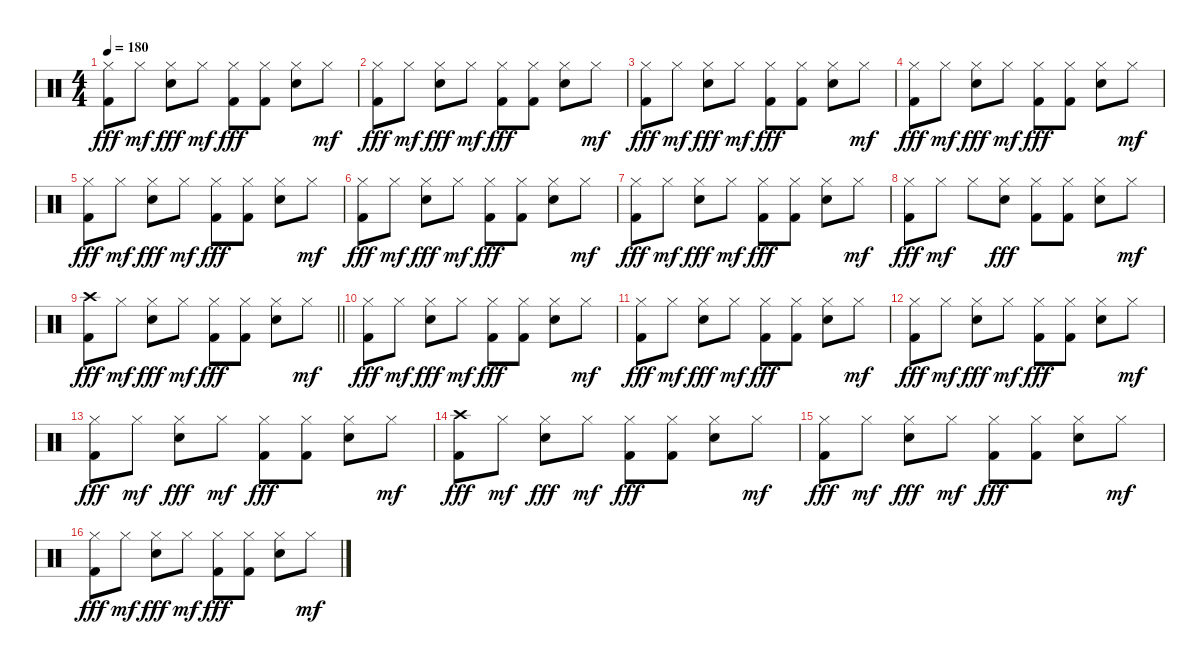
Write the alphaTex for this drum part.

\track "" {instrument percussion}
\staff {score}
\articulation defaults
\ts (4 4)
\tempo 180
\clef neutral
\ks c
("Hi-Hat (closed)" "Kick (hit) 2").8{dy fff} "Hi-Hat (closed)".8{dy mf} ("Hi-Hat (closed)" "Snare (hit) 2").8{dy fff} "Hi-Hat (closed)".8{dy mf} ("Hi-Hat (closed)" "Kick (hit) 2").8{dy fff} ("Hi-Hat (closed)" "Kick (hit) 2").8 ("Hi-Hat (closed)" "Snare (hit) 2").8 "Hi-Hat (closed)".8{dy mf} |
("Hi-Hat (closed)" "Kick (hit) 2").8{dy fff} "Hi-Hat (closed)".8{dy mf} ("Hi-Hat (closed)" "Snare (hit) 2").8{dy fff} "Hi-Hat (closed)".8{dy mf} ("Hi-Hat (closed)" "Kick (hit) 2").8{dy fff} ("Hi-Hat (closed)" "Kick (hit) 2").8 ("Hi-Hat (closed)" "Snare (hit) 2").8 "Hi-Hat (closed)".8{dy mf} |
("Hi-Hat (closed)" "Kick (hit) 2").8{dy fff} "Hi-Hat (closed)".8{dy mf} ("Hi-Hat (closed)" "Snare (hit) 2").8{dy fff} "Hi-Hat (closed)".8{dy mf} ("Hi-Hat (closed)" "Kick (hit) 2").8{dy fff} ("Hi-Hat (closed)" "Kick (hit) 2").8 ("Hi-Hat (closed)" "Snare (hit) 2").8 "Hi-Hat (closed)".8{dy mf} |
("Hi-Hat (closed)" "Kick (hit) 2").8{dy fff} "Hi-Hat (closed)".8{dy mf} ("Hi-Hat (closed)" "Snare (hit) 2").8{dy fff} "Hi-Hat (closed)".8{dy mf} ("Hi-Hat (closed)" "Kick (hit) 2").8{dy fff} ("Hi-Hat (closed)" "Kick (hit) 2").8 ("Hi-Hat (closed)" "Snare (hit) 2").8 "Hi-Hat (closed)".8{dy mf} |
("Hi-Hat (closed)" "Kick (hit) 2").8{dy fff} "Hi-Hat (closed)".8{dy mf} ("Hi-Hat (closed)" "Snare (hit) 2").8{dy fff} "Hi-Hat (closed)".8{dy mf} ("Hi-Hat (closed)" "Kick (hit) 2").8{dy fff} ("Hi-Hat (closed)" "Kick (hit) 2").8 ("Hi-Hat (closed)" "Snare (hit) 2").8 "Hi-Hat (closed)".8{dy mf} |
("Hi-Hat (closed)" "Kick (hit) 2").8{dy fff} "Hi-Hat (closed)".8{dy mf} ("Hi-Hat (closed)" "Snare (hit) 2").8{dy fff} "Hi-Hat (closed)".8{dy mf} ("Hi-Hat (closed)" "Kick (hit) 2").8{dy fff} ("Hi-Hat (closed)" "Kick (hit) 2").8 ("Hi-Hat (closed)" "Snare (hit) 2").8 "Hi-Hat (closed)".8{dy mf} |
("Hi-Hat (closed)" "Kick (hit) 2").8{dy fff} "Hi-Hat (closed)".8{dy mf} ("Hi-Hat (closed)" "Snare (hit) 2").8{dy fff} "Hi-Hat (closed)".8{dy mf} ("Hi-Hat (closed)" "Kick (hit) 2").8{dy fff} ("Hi-Hat (closed)" "Kick (hit) 2").8 ("Hi-Hat (closed)" "Snare (hit) 2").8 "Hi-Hat (closed)".8{dy mf} |
("Hi-Hat (closed)" "Kick (hit) 2").8{dy fff} "Hi-Hat (closed)".8{dy mf} "Hi-Hat (closed)".8 ("Hi-Hat (closed)" "Snare (hit) 2").8{dy fff} ("Hi-Hat (closed)" "Kick (hit) 2").8 ("Hi-Hat (closed)" "Kick (hit) 2").8 ("Hi-Hat (closed)" "Snare (hit) 2").8 "Hi-Hat (closed)".8{dy mf} |
\barLineRight lightlight
("Crash high (hit)" "Kick (hit) 2").8{dy fff} "Hi-Hat (closed)".8{dy mf} ("Hi-Hat (closed)" "Snare (hit) 2").8{dy fff} "Hi-Hat (closed)".8{dy mf} ("Hi-Hat (closed)" "Kick (hit) 2").8{dy fff} ("Hi-Hat (closed)" "Kick (hit) 2").8 ("Hi-Hat (closed)" "Snare (hit) 2").8 "Hi-Hat (closed)".8{dy mf} |
\section ("" "")
("Hi-Hat (closed)" "Kick (hit) 2").8{dy fff} "Hi-Hat (closed)".8{dy mf} ("Hi-Hat (closed)" "Snare (hit) 2").8{dy fff} "Hi-Hat (closed)".8{dy mf} ("Hi-Hat (closed)" "Kick (hit) 2").8{dy fff} ("Hi-Hat (closed)" "Kick (hit) 2").8 ("Hi-Hat (closed)" "Snare (hit) 2").8 "Hi-Hat (closed)".8{dy mf} |
("Hi-Hat (closed)" "Kick (hit) 2").8{dy fff} "Hi-Hat (closed)".8{dy mf} ("Hi-Hat (closed)" "Snare (hit) 2").8{dy fff} "Hi-Hat (closed)".8{dy mf} ("Hi-Hat (closed)" "Kick (hit) 2").8{dy fff} ("Hi-Hat (closed)" "Kick (hit) 2").8 ("Hi-Hat (closed)" "Snare (hit) 2").8 "Hi-Hat (closed)".8{dy mf} |
("Hi-Hat (closed)" "Kick (hit) 2").8{dy fff} "Hi-Hat (closed)".8{dy mf} ("Hi-Hat (closed)" "Snare (hit) 2").8{dy fff} "Hi-Hat (closed)".8{dy mf} ("Hi-Hat (closed)" "Kick (hit) 2").8{dy fff} ("Hi-Hat (closed)" "Kick (hit) 2").8 ("Hi-Hat (closed)" "Snare (hit) 2").8 "Hi-Hat (closed)".8{dy mf} |
("Hi-Hat (closed)" "Kick (hit) 2").8{dy fff} "Hi-Hat (closed)".8{dy mf} ("Hi-Hat (closed)" "Snare (hit) 2").8{dy fff} "Hi-Hat (closed)".8{dy mf} ("Hi-Hat (closed)" "Kick (hit) 2").8{dy fff} ("Hi-Hat (closed)" "Kick (hit) 2").8 ("Hi-Hat (closed)" "Snare (hit) 2").8 "Hi-Hat (closed)".8{dy mf} |
("Crash high (hit)" "Kick (hit) 2").8{dy fff} "Hi-Hat (closed)".8{dy mf} ("Hi-Hat (closed)" "Snare (hit) 2").8{dy fff} "Hi-Hat (closed)".8{dy mf} ("Hi-Hat (closed)" "Kick (hit) 2").8{dy fff} ("Hi-Hat (closed)" "Kick (hit) 2").8 ("Hi-Hat (closed)" "Snare (hit) 2").8 "Hi-Hat (closed)".8{dy mf} |
("Hi-Hat (closed)" "Kick (hit) 2").8{dy fff} "Hi-Hat (closed)".8{dy mf} ("Hi-Hat (closed)" "Snare (hit) 2").8{dy fff} "Hi-Hat (closed)".8{dy mf} ("Hi-Hat (closed)" "Kick (hit) 2").8{dy fff} ("Hi-Hat (closed)" "Kick (hit) 2").8 ("Hi-Hat (closed)" "Snare (hit) 2").8 "Hi-Hat (closed)".8{dy mf} |
("Hi-Hat (closed)" "Kick (hit) 2").8{dy fff} "Hi-Hat (closed)".8{dy mf} ("Hi-Hat (closed)" "Snare (hit) 2").8{dy fff} "Hi-Hat (closed)".8{dy mf} ("Hi-Hat (closed)" "Kick (hit) 2").8{dy fff} ("Hi-Hat (closed)" "Kick (hit) 2").8 ("Hi-Hat (closed)" "Snare (hit) 2").8 "Hi-Hat (closed)".8{dy mf}
